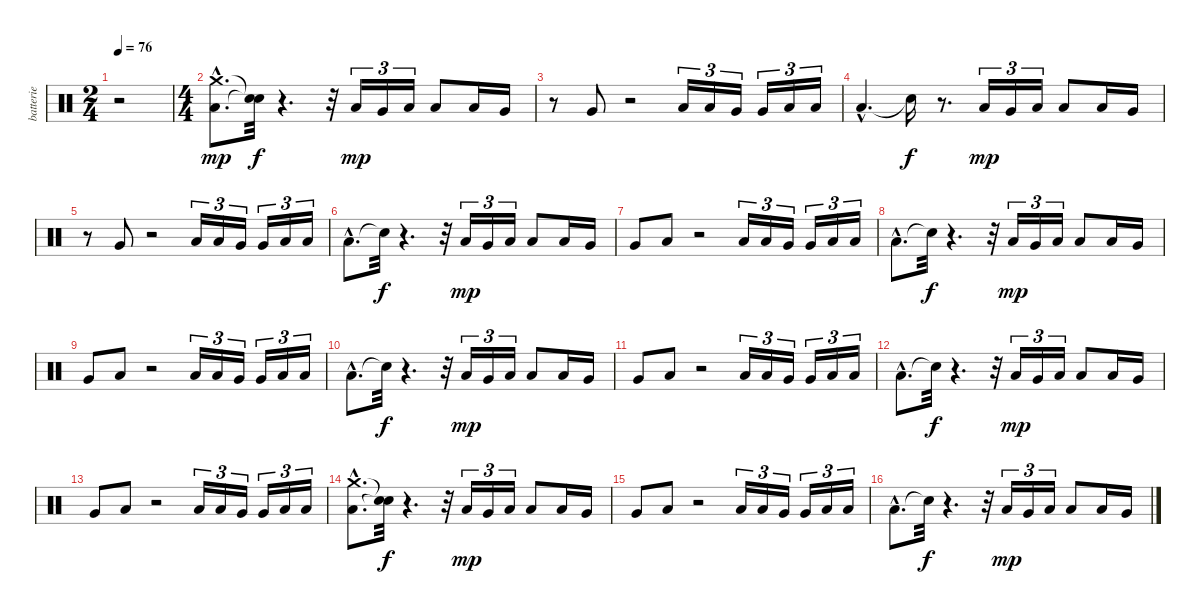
\track ("batterie" "batterie") {instrument percussion}
\staff {score}
\articulation defaults
\ts (2 4)
\tempo 76
\clef neutral
\ks c
r.2{dy mp} |
\ts (4 4)
("Low Floor Tom (hit)"{hac} "Crash medium (hit)"{hac}).8{d} ("Snare (hit)"{t} "Snare (hit)"{t}).32{dy f} r.4{d} r.32 "Low Tom (hit)".16{tu (3 2) dy mp} "Very Low Tom (hit)".16{tu (3 2)} "Low Floor Tom (hit)".16{tu (3 2)} "Low Floor Tom (hit)".8 "Low Tom (hit)".16 "Very Low Tom (hit)".16 |
r.8 "Very Low Tom (hit)".8 r.2 "Low Tom (hit)".16{tu (3 2)} "Low Tom (hit)".16{tu (3 2)} "Very Low Tom (hit)".16{tu (3 2)} "Very Low Tom (hit)".16{tu (3 2)} "Low Floor Tom (hit)".16{tu (3 2)} "Low Floor Tom (hit)".16{tu (3 2)} |
"Low Floor Tom (hit)"{hac}.4{d} "Snare (hit)"{t}.16{dy f} r.8{d} "Low Tom (hit)".16{tu (3 2) dy mp} "Very Low Tom (hit)".16{tu (3 2)} "Low Floor Tom (hit)".16{tu (3 2)} "Low Floor Tom (hit)".8 "Low Tom (hit)".16 "Very Low Tom (hit)".16 |
r.8 "Very Low Tom (hit)".8 r.2 "Low Tom (hit)".16{tu (3 2)} "Low Tom (hit)".16{tu (3 2)} "Very Low Tom (hit)".16{tu (3 2)} "Very Low Tom (hit)".16{tu (3 2)} "Low Floor Tom (hit)".16{tu (3 2)} "Low Floor Tom (hit)".16{tu (3 2)} |
"Low Floor Tom (hit)"{hac}.8{d} "Snare (hit)"{t}.32{dy f} r.4{d} r.32 "Low Tom (hit)".16{tu (3 2) dy mp} "Very Low Tom (hit)".16{tu (3 2)} "Low Floor Tom (hit)".16{tu (3 2)} "Low Floor Tom (hit)".8 "Low Tom (hit)".16 "Very Low Tom (hit)".16 |
"Very Low Tom (hit)".8 "Low Floor Tom (hit)".8 r.2 "Low Tom (hit)".16{tu (3 2)} "Low Tom (hit)".16{tu (3 2)} "Very Low Tom (hit)".16{tu (3 2)} "Very Low Tom (hit)".16{tu (3 2)} "Low Floor Tom (hit)".16{tu (3 2)} "Low Floor Tom (hit)".16{tu (3 2)} |
"Low Floor Tom (hit)"{hac}.8{d} "Snare (hit)"{t}.32{dy f} r.4{d} r.32 "Low Tom (hit)".16{tu (3 2) dy mp} "Very Low Tom (hit)".16{tu (3 2)} "Low Floor Tom (hit)".16{tu (3 2)} "Low Floor Tom (hit)".8 "Low Tom (hit)".16 "Very Low Tom (hit)".16 |
"Very Low Tom (hit)".8 "Low Floor Tom (hit)".8 r.2 "Low Tom (hit)".16{tu (3 2)} "Low Tom (hit)".16{tu (3 2)} "Very Low Tom (hit)".16{tu (3 2)} "Very Low Tom (hit)".16{tu (3 2)} "Low Floor Tom (hit)".16{tu (3 2)} "Low Floor Tom (hit)".16{tu (3 2)} |
"Low Floor Tom (hit)"{hac}.8{d} "Snare (hit)"{t}.32{dy f} r.4{d} r.32 "Low Tom (hit)".16{tu (3 2) dy mp} "Very Low Tom (hit)".16{tu (3 2)} "Low Floor Tom (hit)".16{tu (3 2)} "Low Floor Tom (hit)".8 "Low Tom (hit)".16 "Very Low Tom (hit)".16 |
"Very Low Tom (hit)".8 "Low Floor Tom (hit)".8 r.2 "Low Tom (hit)".16{tu (3 2)} "Low Tom (hit)".16{tu (3 2)} "Very Low Tom (hit)".16{tu (3 2)} "Very Low Tom (hit)".16{tu (3 2)} "Low Floor Tom (hit)".16{tu (3 2)} "Low Floor Tom (hit)".16{tu (3 2)} |
"Low Floor Tom (hit)"{hac}.8{d} "Snare (hit)"{t}.32{dy f} r.4{d} r.32 "Low Tom (hit)".16{tu (3 2) dy mp} "Very Low Tom (hit)".16{tu (3 2)} "Low Floor Tom (hit)".16{tu (3 2)} "Low Floor Tom (hit)".8 "Low Tom (hit)".16 "Very Low Tom (hit)".16 |
"Very Low Tom (hit)".8 "Low Floor Tom (hit)".8 r.2 "Low Tom (hit)".16{tu (3 2)} "Low Tom (hit)".16{tu (3 2)} "Very Low Tom (hit)".16{tu (3 2)} "Very Low Tom (hit)".16{tu (3 2)} "Low Floor Tom (hit)".16{tu (3 2)} "Low Floor Tom (hit)".16{tu (3 2)} |
("Low Floor Tom (hit)"{hac} "Crash medium (hit)"{hac}).8{d} ("Snare (hit)"{t} "Snare (hit)"{t}).32{dy f} r.4{d} r.32 "Low Tom (hit)".16{tu (3 2) dy mp} "Very Low Tom (hit)".16{tu (3 2)} "Low Floor Tom (hit)".16{tu (3 2)} "Low Floor Tom (hit)".8 "Low Tom (hit)".16 "Very Low Tom (hit)".16 |
"Very Low Tom (hit)".8 "Low Floor Tom (hit)".8 r.2 "Low Tom (hit)".16{tu (3 2)} "Low Tom (hit)".16{tu (3 2)} "Very Low Tom (hit)".16{tu (3 2)} "Very Low Tom (hit)".16{tu (3 2)} "Low Floor Tom (hit)".16{tu (3 2)} "Low Floor Tom (hit)".16{tu (3 2)} |
"Low Floor Tom (hit)"{hac}.8{d} "Snare (hit)"{t}.32{dy f} r.4{d} r.32 "Low Tom (hit)".16{tu (3 2) dy mp} "Very Low Tom (hit)".16{tu (3 2)} "Low Floor Tom (hit)".16{tu (3 2)} "Low Floor Tom (hit)".8 "Low Tom (hit)".16 "Very Low Tom (hit)".16
